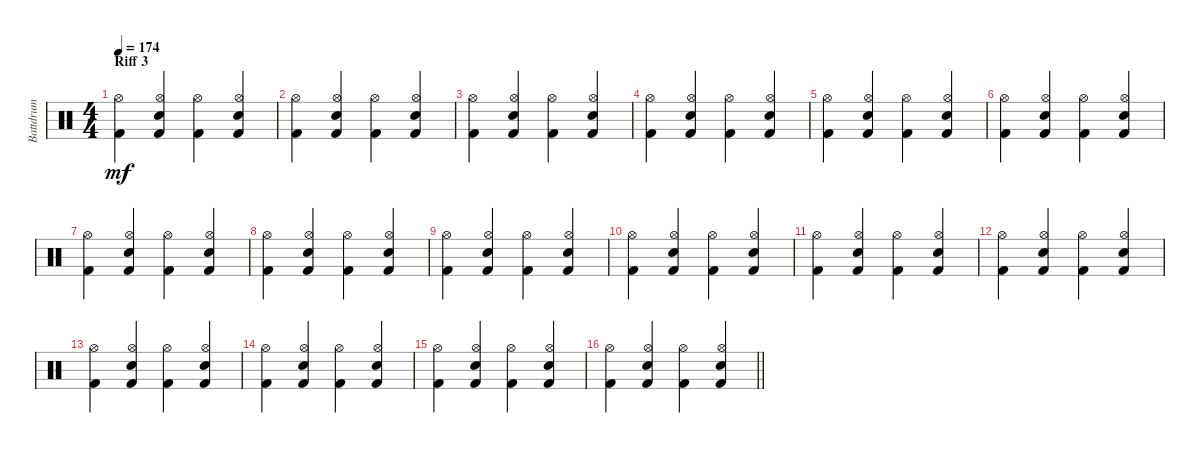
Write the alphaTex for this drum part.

\track ("Battdrum" "Battdrum") {instrument percussion}
\staff {score}
\articulation defaults
\ts (4 4)
\section ("" "Riff 3")
\tempo 174
\clef neutral
\ks c
("Kick (hit) 2" "Hi-Hat (open)").4{dy mf} ("Kick (hit) 2" "Snare (hit) 2" "Hi-Hat (open)").4 ("Kick (hit) 2" "Hi-Hat (open)").4 ("Kick (hit) 2" "Snare (hit) 2" "Hi-Hat (open)").4 |
("Kick (hit) 2" "Hi-Hat (open)").4 ("Kick (hit) 2" "Snare (hit) 2" "Hi-Hat (open)").4 ("Kick (hit) 2" "Hi-Hat (open)").4 ("Kick (hit) 2" "Snare (hit) 2" "Hi-Hat (open)").4 |
("Kick (hit) 2" "Hi-Hat (open)").4 ("Kick (hit) 2" "Snare (hit) 2" "Hi-Hat (open)").4 ("Kick (hit) 2" "Hi-Hat (open)").4 ("Kick (hit) 2" "Snare (hit) 2" "Hi-Hat (open)").4 |
("Kick (hit) 2" "Hi-Hat (open)").4 ("Kick (hit) 2" "Snare (hit) 2" "Hi-Hat (open)").4 ("Kick (hit) 2" "Hi-Hat (open)").4 ("Kick (hit) 2" "Snare (hit) 2" "Hi-Hat (open)").4 |
("Kick (hit) 2" "Hi-Hat (open)").4 ("Kick (hit) 2" "Snare (hit) 2" "Hi-Hat (open)").4 ("Kick (hit) 2" "Hi-Hat (open)").4 ("Kick (hit) 2" "Snare (hit) 2" "Hi-Hat (open)").4 |
("Kick (hit) 2" "Hi-Hat (open)").4 ("Kick (hit) 2" "Snare (hit) 2" "Hi-Hat (open)").4 ("Kick (hit) 2" "Hi-Hat (open)").4 ("Kick (hit) 2" "Snare (hit) 2" "Hi-Hat (open)").4 |
("Kick (hit) 2" "Hi-Hat (open)").4 ("Kick (hit) 2" "Snare (hit) 2" "Hi-Hat (open)").4 ("Kick (hit) 2" "Hi-Hat (open)").4 ("Kick (hit) 2" "Snare (hit) 2" "Hi-Hat (open)").4 |
("Kick (hit) 2" "Hi-Hat (open)").4 ("Kick (hit) 2" "Snare (hit) 2" "Hi-Hat (open)").4 ("Kick (hit) 2" "Hi-Hat (open)").4 ("Kick (hit) 2" "Snare (hit) 2" "Hi-Hat (open)").4 |
("Kick (hit) 2" "Hi-Hat (open)").4 ("Kick (hit) 2" "Snare (hit) 2" "Hi-Hat (open)").4 ("Kick (hit) 2" "Hi-Hat (open)").4 ("Kick (hit) 2" "Snare (hit) 2" "Hi-Hat (open)").4 |
("Kick (hit) 2" "Hi-Hat (open)").4 ("Kick (hit) 2" "Snare (hit) 2" "Hi-Hat (open)").4 ("Kick (hit) 2" "Hi-Hat (open)").4 ("Kick (hit) 2" "Snare (hit) 2" "Hi-Hat (open)").4 |
("Kick (hit) 2" "Hi-Hat (open)").4 ("Kick (hit) 2" "Snare (hit) 2" "Hi-Hat (open)").4 ("Kick (hit) 2" "Hi-Hat (open)").4 ("Kick (hit) 2" "Snare (hit) 2" "Hi-Hat (open)").4 |
("Kick (hit) 2" "Hi-Hat (open)").4 ("Kick (hit) 2" "Snare (hit) 2" "Hi-Hat (open)").4 ("Kick (hit) 2" "Hi-Hat (open)").4 ("Kick (hit) 2" "Snare (hit) 2" "Hi-Hat (open)").4 |
("Kick (hit) 2" "Hi-Hat (open)").4 ("Kick (hit) 2" "Snare (hit) 2" "Hi-Hat (open)").4 ("Kick (hit) 2" "Hi-Hat (open)").4 ("Kick (hit) 2" "Snare (hit) 2" "Hi-Hat (open)").4 |
("Kick (hit) 2" "Hi-Hat (open)").4 ("Kick (hit) 2" "Snare (hit) 2" "Hi-Hat (open)").4 ("Kick (hit) 2" "Hi-Hat (open)").4 ("Kick (hit) 2" "Snare (hit) 2" "Hi-Hat (open)").4 |
("Kick (hit) 2" "Hi-Hat (open)").4 ("Kick (hit) 2" "Snare (hit) 2" "Hi-Hat (open)").4 ("Kick (hit) 2" "Hi-Hat (open)").4 ("Kick (hit) 2" "Snare (hit) 2" "Hi-Hat (open)").4 |
\barLineRight lightlight
("Kick (hit) 2" "Hi-Hat (open)").4 ("Kick (hit) 2" "Snare (hit) 2" "Hi-Hat (open)").4 ("Kick (hit) 2" "Hi-Hat (open)").4 ("Kick (hit) 2" "Snare (hit) 2" "Hi-Hat (open)").4
